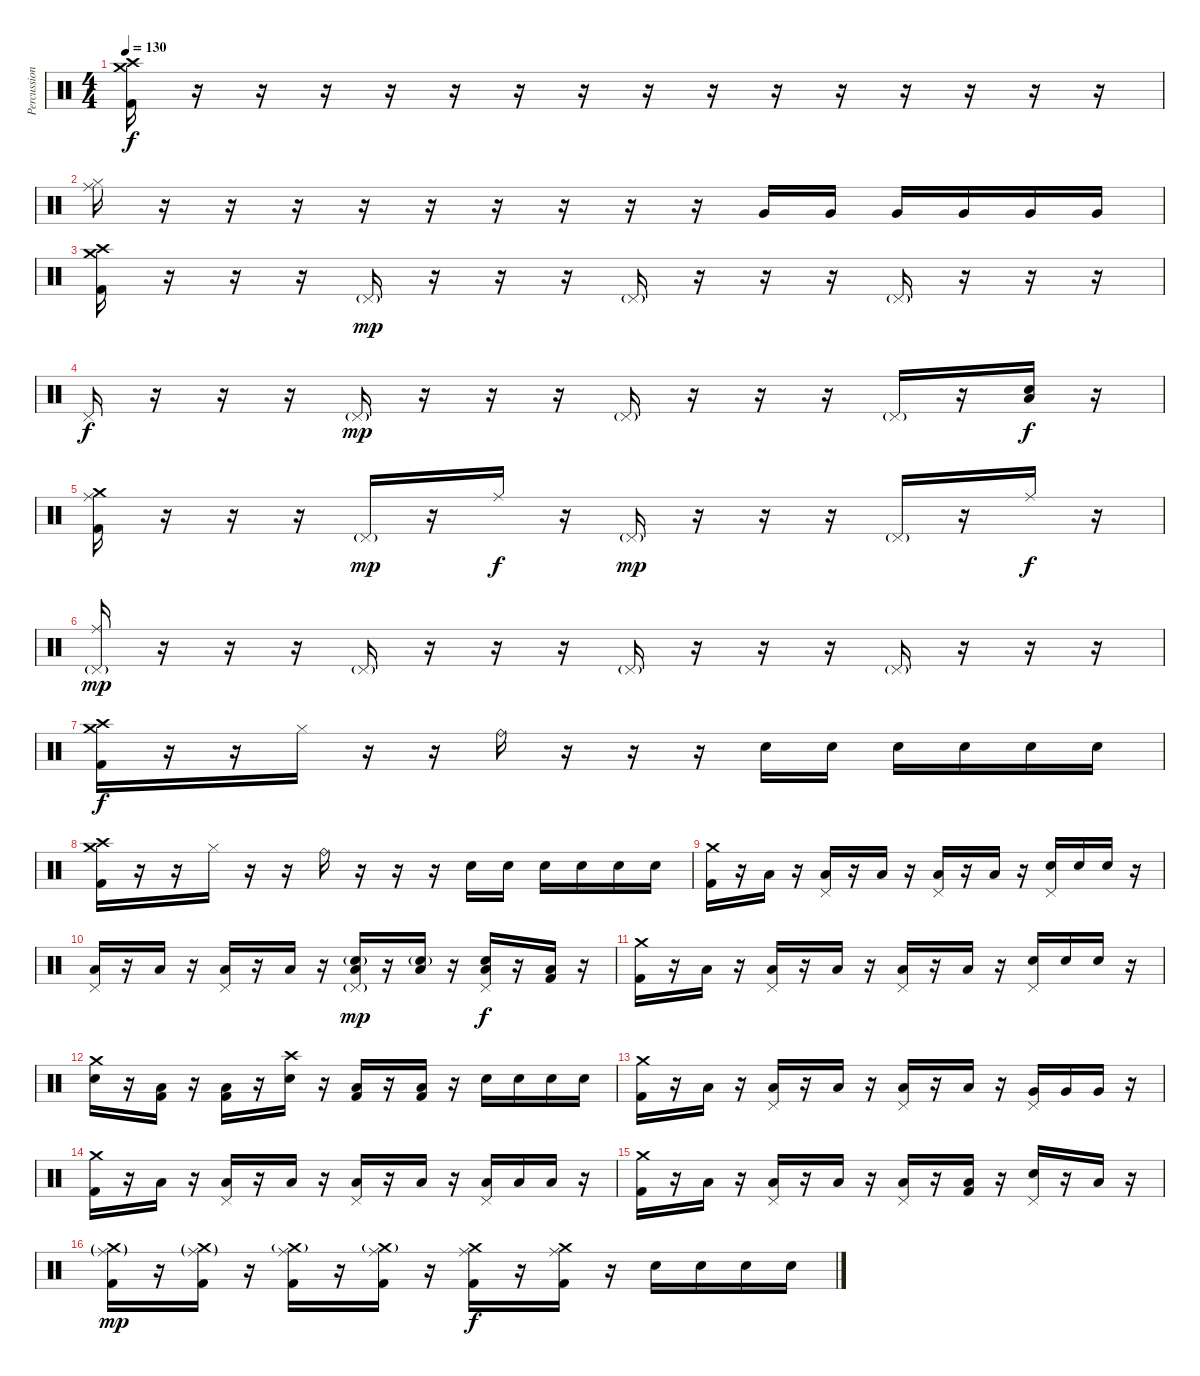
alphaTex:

\track ("Percussion" "Percussion") {instrument percussion}
\staff {score}
\articulation defaults
\ts (4 4)
\tempo 130
\clef neutral
\ks c
("Crash medium (hit)" "Crash high (hit)" "Kick (hit) 2").16{dy f} r.16 r.16 r.16 r.16 r.16 r.16 r.16 r.16 r.16 r.16 r.16 r.16 r.16 r.16 r.16 |
("Ride (middle)" "Hi-Hat (closed)").16 r.16 r.16 r.16 r.16 r.16 r.16 r.16 r.16 r.16 "Very Low Tom (hit)".16 "Very Low Tom (hit)".16 "Very Low Tom (hit)".16 "Very Low Tom (hit)".16 "Very Low Tom (hit)".16 "Very Low Tom (hit)".16 |
("Crash medium (hit)" "Crash high (hit)" "Kick (hit) 2").16 r.16 r.16 r.16 "Pedal Hi-Hat (hit)"{g}.16{dy mp} r.16 r.16 r.16 "Pedal Hi-Hat (hit)"{g}.16 r.16 r.16 r.16 "Pedal Hi-Hat (hit)"{g}.16 r.16 r.16 r.16 |
"Pedal Hi-Hat (hit)".16{dy f} r.16 r.16 r.16 "Pedal Hi-Hat (hit)"{g}.16{dy mp} r.16 r.16 r.16 "Pedal Hi-Hat (hit)"{g}.16 r.16 r.16 r.16 "Pedal Hi-Hat (hit)"{g}.16 r.16 ("Electric Snare (hit)" "Low Floor Tom (hit)").16{dy f} r.16 |
("Crash medium (hit)" "Ride (middle)" "Kick (hit) 2").16 r.16 r.16 r.16 "Pedal Hi-Hat (hit)"{g}.16{dy mp} r.16 "Ride (middle)".16{dy f} r.16 "Pedal Hi-Hat (hit)"{g}.16{dy mp} r.16 r.16 r.16 "Pedal Hi-Hat (hit)"{g}.16 r.16 "Ride (middle)".16{dy f} r.16 |
("Ride (middle)" "Pedal Hi-Hat (hit)"{g}).16{dy mp} r.16 r.16 r.16 "Pedal Hi-Hat (hit)"{g}.16 r.16 r.16 r.16 "Pedal Hi-Hat (hit)"{g}.16 r.16 r.16 r.16 "Pedal Hi-Hat (hit)"{g}.16 r.16 r.16 r.16 |
("Crash medium (hit)" "Crash high (hit)" "Kick (hit) 2").16{dy f} r.16 r.16 "Hi-Hat (closed)".16 r.16 r.16 "Ride (bell)".16 r.16 r.16 r.16 "Electric Snare (hit)".16 "Electric Snare (hit)".16 "Electric Snare (hit)".16 "Electric Snare (hit)".16 "Electric Snare (hit)".16 "Electric Snare (hit)".16 |
("Crash medium (hit)" "Crash high (hit)" "Kick (hit) 2").16 r.16 r.16 "Hi-Hat (closed)".16 r.16 r.16 "Ride (bell)".16 r.16 r.16 r.16 "Electric Snare (hit)".16 "Electric Snare (hit)".16 "Electric Snare (hit)".16 "Electric Snare (hit)".16 "Electric Snare (hit)".16 "Electric Snare (hit)".16 |
("Crash medium (hit)" "Kick (hit) 2").16 r.16 "Low Floor Tom (hit)".16 r.16 ("Pedal Hi-Hat (hit)" "Low Floor Tom (hit)").16 r.16 "Low Floor Tom (hit)".16 r.16 ("Pedal Hi-Hat (hit)" "Low Floor Tom (hit)").16 r.16 "Low Floor Tom (hit)".16 r.16 ("Pedal Hi-Hat (hit)" "Electric Snare (hit)").16 "Electric Snare (hit)".16 "Electric Snare (hit)".16 r.16 |
("Pedal Hi-Hat (hit)" "Low Floor Tom (hit)").16 r.16 "Low Floor Tom (hit)".16 r.16 ("Pedal Hi-Hat (hit)" "Low Floor Tom (hit)").16 r.16 "Low Floor Tom (hit)".16 r.16 ("Pedal Hi-Hat (hit)"{g} "Low Floor Tom (hit)" "Electric Snare (hit)"{g}).16{dy mp} r.16 ("Low Floor Tom (hit)" "Electric Snare (hit)"{g}).16 r.16 ("Electric Snare (hit)" "Pedal Hi-Hat (hit)" "Low Floor Tom (hit)").16{dy f} r.16 ("Low Floor Tom (hit)" "Kick (hit) 2").16 r.16 |
("Crash medium (hit)" "Kick (hit) 2").16 r.16 "Low Floor Tom (hit)".16 r.16 ("Pedal Hi-Hat (hit)" "Low Floor Tom (hit)").16 r.16 "Low Floor Tom (hit)".16 r.16 ("Pedal Hi-Hat (hit)" "Low Floor Tom (hit)").16 r.16 "Low Floor Tom (hit)".16 r.16 ("Pedal Hi-Hat (hit)" "Electric Snare (hit)").16 "Electric Snare (hit)".16 "Electric Snare (hit)".16 r.16 |
("Crash medium (hit)" "Electric Snare (hit)").16 r.16 ("Low Floor Tom (hit)" "Kick (hit) 2").16 r.16 ("Low Floor Tom (hit)" "Kick (hit) 2").16 r.16 ("Crash high (hit)" "Electric Snare (hit)").16 r.16 ("Low Floor Tom (hit)" "Kick (hit) 2").16 r.16 ("Low Floor Tom (hit)" "Kick (hit) 2").16 r.16 "Electric Snare (hit)".16 "Electric Snare (hit)".16 "Electric Snare (hit)".16 "Electric Snare (hit)".16 |
("Crash medium (hit)" "Kick (hit) 2").16 r.16 "Low Floor Tom (hit)".16 r.16 ("Pedal Hi-Hat (hit)" "Low Floor Tom (hit)").16 r.16 "Low Floor Tom (hit)".16 r.16 ("Pedal Hi-Hat (hit)" "Low Floor Tom (hit)").16 r.16 "Low Floor Tom (hit)".16 r.16 ("Pedal Hi-Hat (hit)" "Very Low Tom (hit)").16 "Very Low Tom (hit)".16 "Very Low Tom (hit)".16 r.16 |
("Crash medium (hit)" "Kick (hit) 2").16 r.16 "Low Floor Tom (hit)".16 r.16 ("Pedal Hi-Hat (hit)" "Low Floor Tom (hit)").16 r.16 "Low Floor Tom (hit)".16 r.16 ("Pedal Hi-Hat (hit)" "Low Floor Tom (hit)").16 r.16 "Low Floor Tom (hit)".16 r.16 ("Pedal Hi-Hat (hit)" "Low Floor Tom (hit)").16 "Low Floor Tom (hit)".16 "Low Floor Tom (hit)".16 r.16 |
("Crash medium (hit)" "Kick (hit) 2").16 r.16 "Low Floor Tom (hit)".16 r.16 ("Pedal Hi-Hat (hit)" "Low Floor Tom (hit)").16 r.16 "Low Floor Tom (hit)".16 r.16 ("Pedal Hi-Hat (hit)" "Low Floor Tom (hit)").16 r.16 ("Low Floor Tom (hit)" "Kick (hit) 2").16 r.16 ("Pedal Hi-Hat (hit)" "Electric Snare (hit)").16 r.16 "Low Floor Tom (hit)".16 r.16 |
("Ride (middle)"{g} "Crash medium (hit)"{g} "Kick (hit) 2").16{dy mp} r.16 ("Ride (middle)"{g} "Crash medium (hit)"{g} "Kick (hit) 2").16 r.16 ("Ride (middle)" "Crash medium (hit)"{g} "Kick (hit) 2").16 r.16 ("Ride (middle)" "Crash medium (hit)"{g} "Kick (hit) 2").16 r.16 ("Ride (middle)" "Crash medium (hit)" "Kick (hit) 2").16{dy f} r.16 ("Ride (middle)" "Crash medium (hit)" "Kick (hit) 2").16 r.16 "Electric Snare (hit)".16 "Electric Snare (hit)".16 "Electric Snare (hit)".16 "Electric Snare (hit)".16
